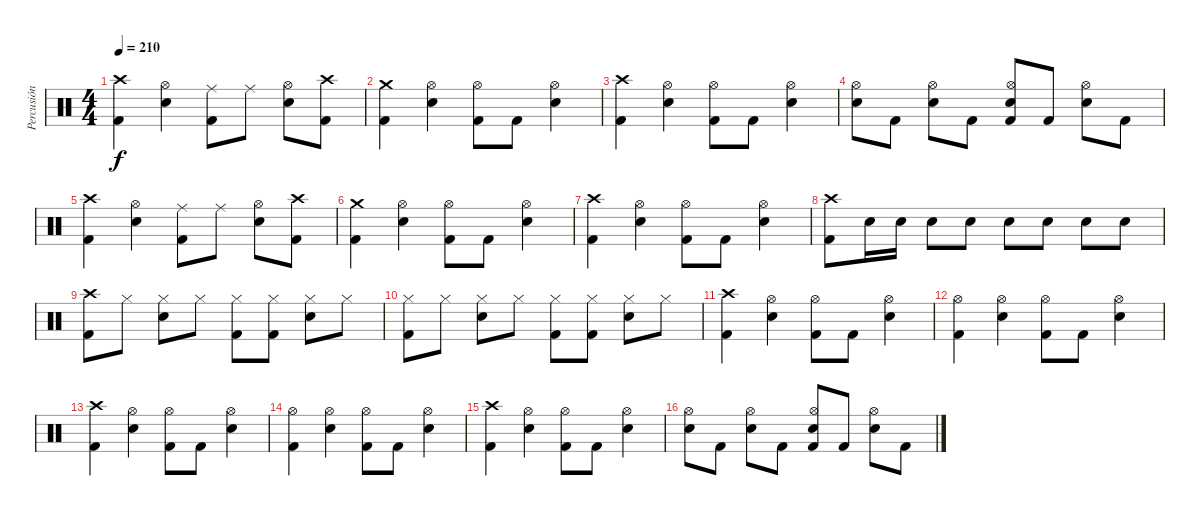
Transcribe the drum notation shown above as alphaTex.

\track ("Percusión" "Percusión") {instrument percussion}
\staff {score}
\articulation defaults
\ts (4 4)
\tempo 210
\clef neutral
\ks c
("Crash high (hit)" "Kick (hit) 2").4{dy f} ("Hi-Hat (open)" "Electric Snare (hit)").4 ("Ride (middle)" "Kick (hit) 2").8 "Ride (middle)".8 ("Hi-Hat (open)" "Electric Snare (hit)").8 ("Crash high (hit)" "Kick (hit) 2").8 |
("Crash medium (hit)" "Kick (hit) 2").4 ("Hi-Hat (open)" "Electric Snare (hit)").4 ("Hi-Hat (open)" "Kick (hit) 2").8 "Kick (hit) 2".8 ("Hi-Hat (open)" "Electric Snare (hit)").4 |
("Crash high (hit)" "Kick (hit) 2").4 ("Hi-Hat (open)" "Electric Snare (hit)").4 ("Hi-Hat (open)" "Kick (hit) 2").8 "Kick (hit) 2".8 ("Hi-Hat (open)" "Electric Snare (hit)").4 |
("Hi-Hat (open)" "Electric Snare (hit)").8 "Kick (hit) 2".8 ("Hi-Hat (open)" "Electric Snare (hit)").8 "Kick (hit) 2".8 ("Hi-Hat (open)" "Electric Snare (hit)" "Kick (hit) 2").8 "Kick (hit) 2".8 ("Hi-Hat (open)" "Electric Snare (hit)").8 "Kick (hit) 2".8 |
("Crash high (hit)" "Kick (hit) 2").4 ("Hi-Hat (open)" "Electric Snare (hit)").4 ("Ride (middle)" "Kick (hit) 2").8 "Ride (middle)".8 ("Hi-Hat (open)" "Electric Snare (hit)").8 ("Crash high (hit)" "Kick (hit) 2").8 |
("Crash medium (hit)" "Kick (hit) 2").4 ("Hi-Hat (open)" "Electric Snare (hit)").4 ("Hi-Hat (open)" "Kick (hit) 2").8 "Kick (hit) 2".8 ("Hi-Hat (open)" "Electric Snare (hit)").4 |
("Crash high (hit)" "Kick (hit) 2").4 ("Hi-Hat (open)" "Electric Snare (hit)").4 ("Hi-Hat (open)" "Kick (hit) 2").8 "Kick (hit) 2".8 ("Hi-Hat (open)" "Electric Snare (hit)").4 |
("Crash high (hit)" "Kick (hit) 2").8 "Electric Snare (hit)".16 "Electric Snare (hit)".16 "Electric Snare (hit)".8 "Electric Snare (hit)".8 "Electric Snare (hit)".8 "Electric Snare (hit)".8 "Electric Snare (hit)".8 "Electric Snare (hit)".8 |
("Crash high (hit)" "Kick (hit) 2").8 "Hi-Hat (closed)".8 ("Hi-Hat (closed)" "Electric Snare (hit)").8 "Hi-Hat (closed)".8 ("Hi-Hat (closed)" "Kick (hit) 2").8 ("Hi-Hat (closed)" "Kick (hit) 2").8 ("Hi-Hat (closed)" "Electric Snare (hit)").8 "Hi-Hat (closed)".8 |
("Hi-Hat (closed)" "Kick (hit) 2").8 "Hi-Hat (closed)".8 ("Hi-Hat (closed)" "Electric Snare (hit)").8 "Hi-Hat (closed)".8 ("Hi-Hat (closed)" "Kick (hit) 2").8 ("Hi-Hat (closed)" "Kick (hit) 2").8 ("Hi-Hat (closed)" "Electric Snare (hit)").8 "Hi-Hat (closed)".8 |
("Crash high (hit)" "Kick (hit) 2").4 ("Hi-Hat (open)" "Electric Snare (hit)").4 ("Hi-Hat (open)" "Kick (hit) 2").8 "Kick (hit) 2".8 ("Hi-Hat (open)" "Electric Snare (hit)").4 |
("Hi-Hat (open)" "Kick (hit) 2").4 ("Hi-Hat (open)" "Electric Snare (hit)").4 ("Hi-Hat (open)" "Kick (hit) 2").8 "Kick (hit) 2".8 ("Hi-Hat (open)" "Electric Snare (hit)").4 |
("Crash high (hit)" "Kick (hit) 2").4 ("Hi-Hat (open)" "Electric Snare (hit)").4 ("Hi-Hat (open)" "Kick (hit) 2").8 "Kick (hit) 2".8 ("Hi-Hat (open)" "Electric Snare (hit)").4 |
("Hi-Hat (open)" "Kick (hit) 2").4 ("Hi-Hat (open)" "Electric Snare (hit)").4 ("Hi-Hat (open)" "Kick (hit) 2").8 "Kick (hit) 2".8 ("Hi-Hat (open)" "Electric Snare (hit)").4 |
("Crash high (hit)" "Kick (hit) 2").4 ("Hi-Hat (open)" "Electric Snare (hit)").4 ("Hi-Hat (open)" "Kick (hit) 2").8 "Kick (hit) 2".8 ("Hi-Hat (open)" "Electric Snare (hit)").4 |
("Hi-Hat (open)" "Electric Snare (hit)").8 "Kick (hit) 2".8 ("Hi-Hat (open)" "Electric Snare (hit)").8 "Kick (hit) 2".8 ("Hi-Hat (open)" "Electric Snare (hit)" "Kick (hit) 2").8 "Kick (hit) 2".8 ("Hi-Hat (open)" "Electric Snare (hit)").8 "Kick (hit) 2".8
